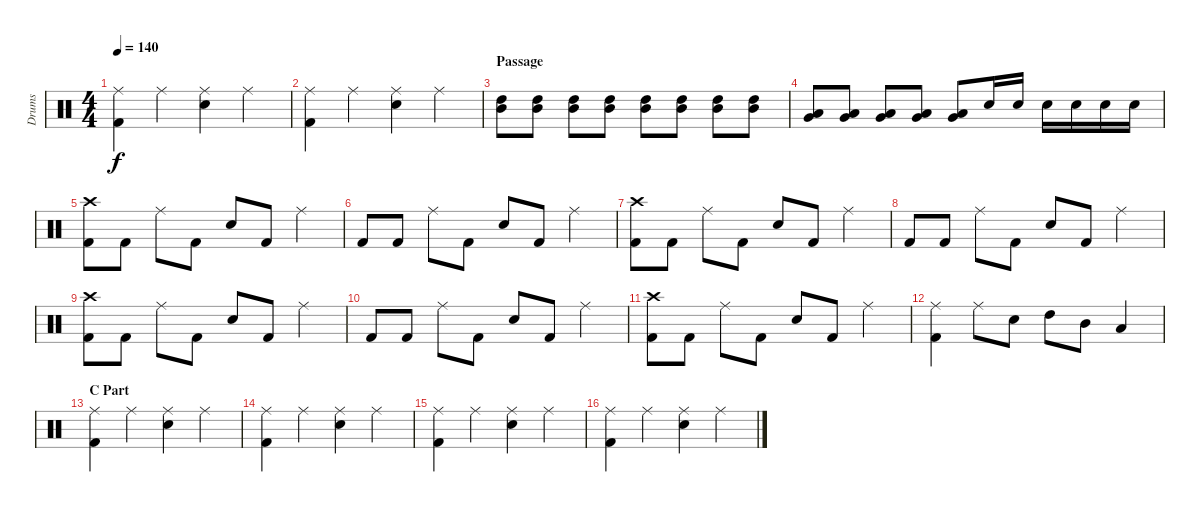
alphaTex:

\track ("Drums" "Drums") {instrument percussion}
\staff {score}
\articulation defaults
\ts (4 4)
\tempo 140
\clef neutral
\ks c
("Ride (middle)" "Kick (hit) 2").4{dy f} "Ride (middle)".4 ("Ride (middle)" "Electric Snare (hit)").4 "Ride (middle)".4 |
("Ride (middle)" "Kick (hit) 2").4 "Ride (middle)".4 ("Ride (middle)" "Electric Snare (hit)").4 "Ride (middle)".4 |
\section ("" "Passage")
("High Tom (hit)" "Mid Tom (hit)").8 ("High Tom (hit)" "Mid Tom (hit)").8 ("High Tom (hit)" "Mid Tom (hit)").8 ("High Tom (hit)" "Mid Tom (hit)").8 ("High Tom (hit)" "Mid Tom (hit)").8 ("High Tom (hit)" "Mid Tom (hit)").8 ("High Tom (hit)" "Mid Tom (hit)").8 ("High Tom (hit)" "Mid Tom (hit)").8 |
("Low Tom (hit)" "Very Low Tom (hit)").8 ("Low Tom (hit)" "Very Low Tom (hit)").8 ("Low Tom (hit)" "Very Low Tom (hit)").8 ("Low Tom (hit)" "Very Low Tom (hit)").8 ("Low Tom (hit)" "Very Low Tom (hit)").8 "Electric Snare (hit)".16 "Electric Snare (hit)".16 "Electric Snare (hit)".16 "Electric Snare (hit)".16 "Electric Snare (hit)".16 "Electric Snare (hit)".16 |
("Crash high (hit)" "Kick (hit) 2").8 "Kick (hit) 2".8 "Ride (middle)".8 "Kick (hit) 2".8 "Electric Snare (hit)".8 "Kick (hit) 2".8 "Ride (middle)".4 |
"Kick (hit) 2".8 "Kick (hit) 2".8 "Ride (middle)".8 "Kick (hit) 2".8 "Electric Snare (hit)".8 "Kick (hit) 2".8 "Ride (middle)".4 |
("Crash high (hit)" "Kick (hit) 2").8 "Kick (hit) 2".8 "Ride (middle)".8 "Kick (hit) 2".8 "Electric Snare (hit)".8 "Kick (hit) 2".8 "Ride (middle)".4 |
"Kick (hit) 2".8 "Kick (hit) 2".8 "Ride (middle)".8 "Kick (hit) 2".8 "Electric Snare (hit)".8 "Kick (hit) 2".8 "Ride (middle)".4 |
("Crash high (hit)" "Kick (hit) 2").8 "Kick (hit) 2".8 "Ride (middle)".8 "Kick (hit) 2".8 "Electric Snare (hit)".8 "Kick (hit) 2".8 "Ride (middle)".4 |
"Kick (hit) 2".8 "Kick (hit) 2".8 "Ride (middle)".8 "Kick (hit) 2".8 "Electric Snare (hit)".8 "Kick (hit) 2".8 "Ride (middle)".4 |
("Crash high (hit)" "Kick (hit) 2").8 "Kick (hit) 2".8 "Ride (middle)".8 "Kick (hit) 2".8 "Electric Snare (hit)".8 "Kick (hit) 2".8 "Ride (middle)".4 |
("Ride (middle)" "Kick (hit) 2").4 "Ride (middle)".8 "Electric Snare (hit)".8 "High Tom (hit)".8 "Mid Tom (hit)".8 "Low Tom (hit)".4 |
\section ("" "C Part")
("Ride (middle)" "Kick (hit) 2").4 "Ride (middle)".4 ("Ride (middle)" "Electric Snare (hit)").4 "Ride (middle)".4 |
("Ride (middle)" "Kick (hit) 2").4 "Ride (middle)".4 ("Ride (middle)" "Electric Snare (hit)").4 "Ride (middle)".4 |
("Ride (middle)" "Kick (hit) 2").4 "Ride (middle)".4 ("Ride (middle)" "Electric Snare (hit)").4 "Ride (middle)".4 |
("Ride (middle)" "Kick (hit) 2").4 "Ride (middle)".4 ("Ride (middle)" "Electric Snare (hit)").4 "Ride (middle)".4
